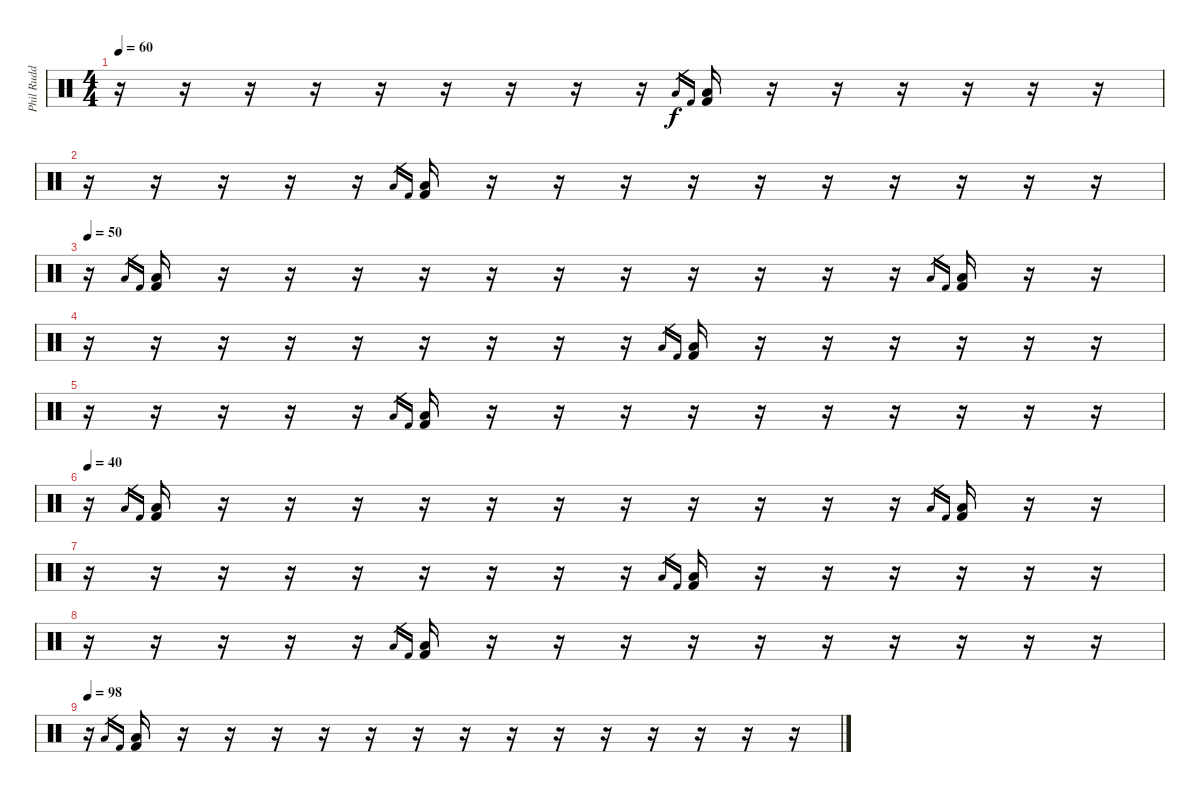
\track ("Phil Rudd" "Phil Rudd") {instrument percussion}
\staff {score}
\articulation defaults
\ts (4 4)
\tempo 60
\clef neutral
\ks c
r.16{dy f} r.16 r.16 r.16 r.16 r.16 r.16 r.16 r.16 "Low Tom (hit)".16{gr} "Kick (hit) 2".16{gr} ("Low Tom (hit)" "Kick (hit) 2").16 r.16 r.16 r.16 r.16 r.16 r.16 |
r.16 r.16 r.16 r.16 r.16 "Low Tom (hit)".16{gr} "Kick (hit) 2".16{gr} ("Low Tom (hit)" "Kick (hit) 2").16 r.16 r.16 r.16 r.16 r.16 r.16 r.16 r.16 r.16 r.16 |
\tempo 50
r.16 "Low Tom (hit)".16{gr} "Kick (hit) 2".16{gr} ("Low Tom (hit)" "Kick (hit) 2").16 r.16 r.16 r.16 r.16 r.16 r.16 r.16 r.16 r.16 r.16 r.16 "Low Tom (hit)".16{gr} "Kick (hit) 2".16{gr} ("Low Tom (hit)" "Kick (hit) 2").16 r.16 r.16 |
r.16 r.16 r.16 r.16 r.16 r.16 r.16 r.16 r.16 "Low Tom (hit)".16{gr} "Kick (hit) 2".16{gr} ("Low Tom (hit)" "Kick (hit) 2").16 r.16 r.16 r.16 r.16 r.16 r.16 |
r.16 r.16 r.16 r.16 r.16 "Low Tom (hit)".16{gr} "Kick (hit) 2".16{gr} ("Low Tom (hit)" "Kick (hit) 2").16 r.16 r.16 r.16 r.16 r.16 r.16 r.16 r.16 r.16 r.16 |
\tempo 40
r.16 "Low Tom (hit)".16{gr} "Kick (hit) 2".16{gr} ("Low Tom (hit)" "Kick (hit) 2").16 r.16 r.16 r.16 r.16 r.16 r.16 r.16 r.16 r.16 r.16 r.16 "Low Tom (hit)".16{gr} "Kick (hit) 2".16{gr} ("Low Tom (hit)" "Kick (hit) 2").16 r.16 r.16 |
r.16 r.16 r.16 r.16 r.16 r.16 r.16 r.16 r.16 "Low Tom (hit)".16{gr} "Kick (hit) 2".16{gr} ("Low Tom (hit)" "Kick (hit) 2").16 r.16 r.16 r.16 r.16 r.16 r.16 |
r.16 r.16 r.16 r.16 r.16 "Low Tom (hit)".16{gr} "Kick (hit) 2".16{gr} ("Low Tom (hit)" "Kick (hit) 2").16 r.16 r.16 r.16 r.16 r.16 r.16 r.16 r.16 r.16 r.16 |
\tempo 98
r.16 "Low Tom (hit)".16{gr} "Kick (hit) 2".16{gr} ("Low Tom (hit)" "Kick (hit) 2").16 r.16 r.16 r.16 r.16 r.16 r.16 r.16 r.16 r.16 r.16 r.16 r.16 r.16 r.16
